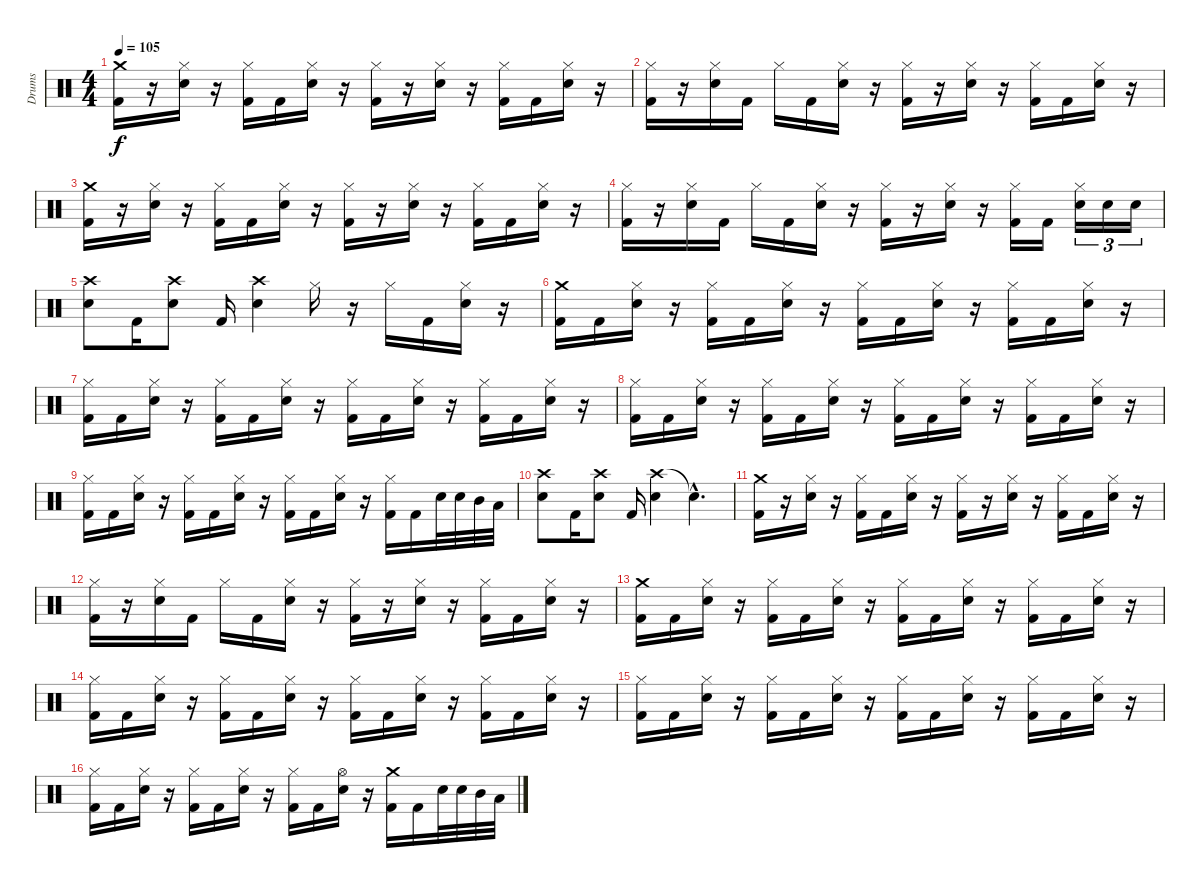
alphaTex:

\track ("Drums" "Drums") {instrument percussion}
\staff {score}
\articulation defaults
\ts (4 4)
\tempo 105
\clef neutral
\ks c
("Crash medium (hit)" "Kick (hit) 2").16{dy f} r.16 ("Hi-Hat (closed)" "Snare (hit) 2").16 r.16 ("Hi-Hat (closed)" "Kick (hit) 2").16 "Kick (hit) 2".16 ("Hi-Hat (closed)" "Snare (hit) 2").16 r.16 ("Hi-Hat (closed)" "Kick (hit) 2").16 r.16 ("Hi-Hat (closed)" "Snare (hit) 2").16 r.16 ("Hi-Hat (closed)" "Kick (hit) 2").16 "Kick (hit) 2".16 ("Hi-Hat (closed)" "Snare (hit) 2").16 r.16 |
("Hi-Hat (closed)" "Kick (hit) 2").16 r.16 ("Hi-Hat (closed)" "Snare (hit) 2").16 "Kick (hit) 2".16 "Hi-Hat (closed)".16 "Kick (hit) 2".16 ("Hi-Hat (closed)" "Snare (hit) 2").16 r.16 ("Hi-Hat (closed)" "Kick (hit) 2").16 r.16 ("Hi-Hat (closed)" "Snare (hit) 2").16 r.16 ("Hi-Hat (closed)" "Kick (hit) 2").16 "Kick (hit) 2".16 ("Hi-Hat (closed)" "Snare (hit) 2").16 r.16 |
("Crash medium (hit)" "Kick (hit) 2").16 r.16 ("Hi-Hat (closed)" "Snare (hit) 2").16 r.16 ("Hi-Hat (closed)" "Kick (hit) 2").16 "Kick (hit) 2".16 ("Hi-Hat (closed)" "Snare (hit) 2").16 r.16 ("Hi-Hat (closed)" "Kick (hit) 2").16 r.16 ("Hi-Hat (closed)" "Snare (hit) 2").16 r.16 ("Hi-Hat (closed)" "Kick (hit) 2").16 "Kick (hit) 2".16 ("Hi-Hat (closed)" "Snare (hit) 2").16 r.16 |
("Hi-Hat (closed)" "Kick (hit) 2").16 r.16 ("Hi-Hat (closed)" "Snare (hit) 2").16 "Kick (hit) 2".16 "Hi-Hat (closed)".16 "Kick (hit) 2".16 ("Hi-Hat (closed)" "Snare (hit) 2").16 r.16 ("Hi-Hat (closed)" "Kick (hit) 2").16 r.16 ("Hi-Hat (closed)" "Snare (hit) 2").16 r.16 ("Hi-Hat (closed)" "Kick (hit) 2").16 "Kick (hit) 2".16 ("Hi-Hat (closed)" "Snare (hit) 2").16{tu (3 2)} "Snare (hit) 2".16{tu (3 2)} "Snare (hit) 2".16{tu (3 2)} |
("Crash high (hit)" "Snare (hit) 2").8 "Kick (hit) 2".16 ("Crash high (hit)" "Snare (hit) 2").8 "Kick (hit) 2".16 ("Crash high (hit)" "Snare (hit) 2").4 "Hi-Hat (closed)".16 r.16 "Hi-Hat (closed)".16 "Kick (hit) 2".16 ("Hi-Hat (closed)" "Snare (hit) 2").16 r.16 |
("Crash medium (hit)" "Kick (hit) 2").16 "Kick (hit) 2".16 ("Hi-Hat (closed)" "Snare (hit) 2").16 r.16 ("Hi-Hat (closed)" "Kick (hit) 2").16 "Kick (hit) 2".16 ("Hi-Hat (closed)" "Snare (hit) 2").16 r.16 ("Hi-Hat (closed)" "Kick (hit) 2").16 "Kick (hit) 2".16 ("Hi-Hat (closed)" "Snare (hit) 2").16 r.16 ("Hi-Hat (closed)" "Kick (hit) 2").16 "Kick (hit) 2".16 ("Hi-Hat (closed)" "Snare (hit) 2").16 r.16 |
("Hi-Hat (closed)" "Kick (hit) 2").16 "Kick (hit) 2".16 ("Hi-Hat (closed)" "Snare (hit) 2").16 r.16 ("Hi-Hat (closed)" "Kick (hit) 2").16 "Kick (hit) 2".16 ("Hi-Hat (closed)" "Snare (hit) 2").16 r.16 ("Hi-Hat (closed)" "Kick (hit) 2").16 "Kick (hit) 2".16 ("Hi-Hat (closed)" "Snare (hit) 2").16 r.16 ("Hi-Hat (closed)" "Kick (hit) 2").16 "Kick (hit) 2".16 ("Hi-Hat (closed)" "Snare (hit) 2").16 r.16 |
("Hi-Hat (closed)" "Kick (hit) 2").16 "Kick (hit) 2".16 ("Hi-Hat (closed)" "Snare (hit) 2").16 r.16 ("Hi-Hat (closed)" "Kick (hit) 2").16 "Kick (hit) 2".16 ("Hi-Hat (closed)" "Snare (hit) 2").16 r.16 ("Hi-Hat (closed)" "Kick (hit) 2").16 "Kick (hit) 2".16 ("Hi-Hat (closed)" "Snare (hit) 2").16 r.16 ("Hi-Hat (closed)" "Kick (hit) 2").16 "Kick (hit) 2".16 ("Hi-Hat (closed)" "Snare (hit) 2").16 r.16 |
("Hi-Hat (closed)" "Kick (hit) 2").16 "Kick (hit) 2".16 ("Hi-Hat (closed)" "Snare (hit) 2").16 r.16 ("Hi-Hat (closed)" "Kick (hit) 2").16 "Kick (hit) 2".16 ("Hi-Hat (closed)" "Snare (hit) 2").16 r.16 ("Hi-Hat (closed)" "Kick (hit) 2").16 "Kick (hit) 2".16 ("Hi-Hat (closed)" "Snare (hit) 2").16 r.16 ("Hi-Hat (closed)" "Kick (hit) 2").16 "Kick (hit) 2".16 "Snare (hit) 2".32 "Snare (hit) 2".32 "Mid Tom (hit)".32 "Low Tom (hit)".32 |
("Crash high (hit)" "Snare (hit) 2").8 "Kick (hit) 2".16 ("Crash high (hit)" "Snare (hit) 2").8 "Kick (hit) 2".16 ("Crash high (hit)" "Snare (hit) 2").4 "Snare (hit)"{hac t}.4{d} |
("Crash medium (hit)" "Kick (hit) 2").16 r.16 ("Hi-Hat (closed)" "Snare (hit) 2").16 r.16 ("Hi-Hat (closed)" "Kick (hit) 2").16 "Kick (hit) 2".16 ("Hi-Hat (closed)" "Snare (hit) 2").16 r.16 ("Hi-Hat (closed)" "Kick (hit) 2").16 r.16 ("Hi-Hat (closed)" "Snare (hit) 2").16 r.16 ("Hi-Hat (closed)" "Kick (hit) 2").16 "Kick (hit) 2".16 ("Hi-Hat (closed)" "Snare (hit) 2").16 r.16 |
("Hi-Hat (closed)" "Kick (hit) 2").16 r.16 ("Hi-Hat (closed)" "Snare (hit) 2").16 "Kick (hit) 2".16 "Hi-Hat (closed)".16 "Kick (hit) 2".16 ("Hi-Hat (closed)" "Snare (hit) 2").16 r.16 ("Hi-Hat (closed)" "Kick (hit) 2").16 r.16 ("Hi-Hat (closed)" "Snare (hit) 2").16 r.16 ("Hi-Hat (closed)" "Kick (hit) 2").16 "Kick (hit) 2".16 ("Hi-Hat (closed)" "Snare (hit) 2").16 r.16 |
("Crash medium (hit)" "Kick (hit) 2").16 "Kick (hit) 2".16 ("Hi-Hat (closed)" "Snare (hit) 2").16 r.16 ("Hi-Hat (closed)" "Kick (hit) 2").16 "Kick (hit) 2".16 ("Hi-Hat (closed)" "Snare (hit) 2").16 r.16 ("Hi-Hat (closed)" "Kick (hit) 2").16 "Kick (hit) 2".16 ("Hi-Hat (closed)" "Snare (hit) 2").16 r.16 ("Hi-Hat (closed)" "Kick (hit) 2").16 "Kick (hit) 2".16 ("Hi-Hat (closed)" "Snare (hit) 2").16 r.16 |
("Hi-Hat (closed)" "Kick (hit) 2").16 "Kick (hit) 2".16 ("Hi-Hat (closed)" "Snare (hit) 2").16 r.16 ("Hi-Hat (closed)" "Kick (hit) 2").16 "Kick (hit) 2".16 ("Hi-Hat (closed)" "Snare (hit) 2").16 r.16 ("Hi-Hat (closed)" "Kick (hit) 2").16 "Kick (hit) 2".16 ("Hi-Hat (closed)" "Snare (hit) 2").16 r.16 ("Hi-Hat (closed)" "Kick (hit) 2").16 "Kick (hit) 2".16 ("Hi-Hat (closed)" "Snare (hit) 2").16 r.16 |
("Hi-Hat (closed)" "Kick (hit) 2").16 "Kick (hit) 2".16 ("Hi-Hat (closed)" "Snare (hit) 2").16 r.16 ("Hi-Hat (closed)" "Kick (hit) 2").16 "Kick (hit) 2".16 ("Hi-Hat (closed)" "Snare (hit) 2").16 r.16 ("Hi-Hat (closed)" "Kick (hit) 2").16 "Kick (hit) 2".16 ("Hi-Hat (closed)" "Snare (hit) 2").16 r.16 ("Hi-Hat (closed)" "Kick (hit) 2").16 "Kick (hit) 2".16 ("Hi-Hat (closed)" "Snare (hit) 2").16 r.16 |
("Hi-Hat (closed)" "Kick (hit) 2").16 "Kick (hit) 2".16 ("Hi-Hat (closed)" "Snare (hit) 2").16 r.16 ("Hi-Hat (closed)" "Kick (hit) 2").16 "Kick (hit) 2".16 ("Hi-Hat (closed)" "Snare (hit) 2").16 r.16 ("Hi-Hat (closed)" "Kick (hit) 2").16 "Kick (hit) 2".16 ("Hi-Hat (open)" "Snare (hit) 2").16 r.16 ("Crash medium (hit)" "Kick (hit) 2").16 "Kick (hit) 2".16 "Snare (hit) 2".32 "Snare (hit) 2".32 "Mid Tom (hit)".32 "Low Tom (hit)".32
